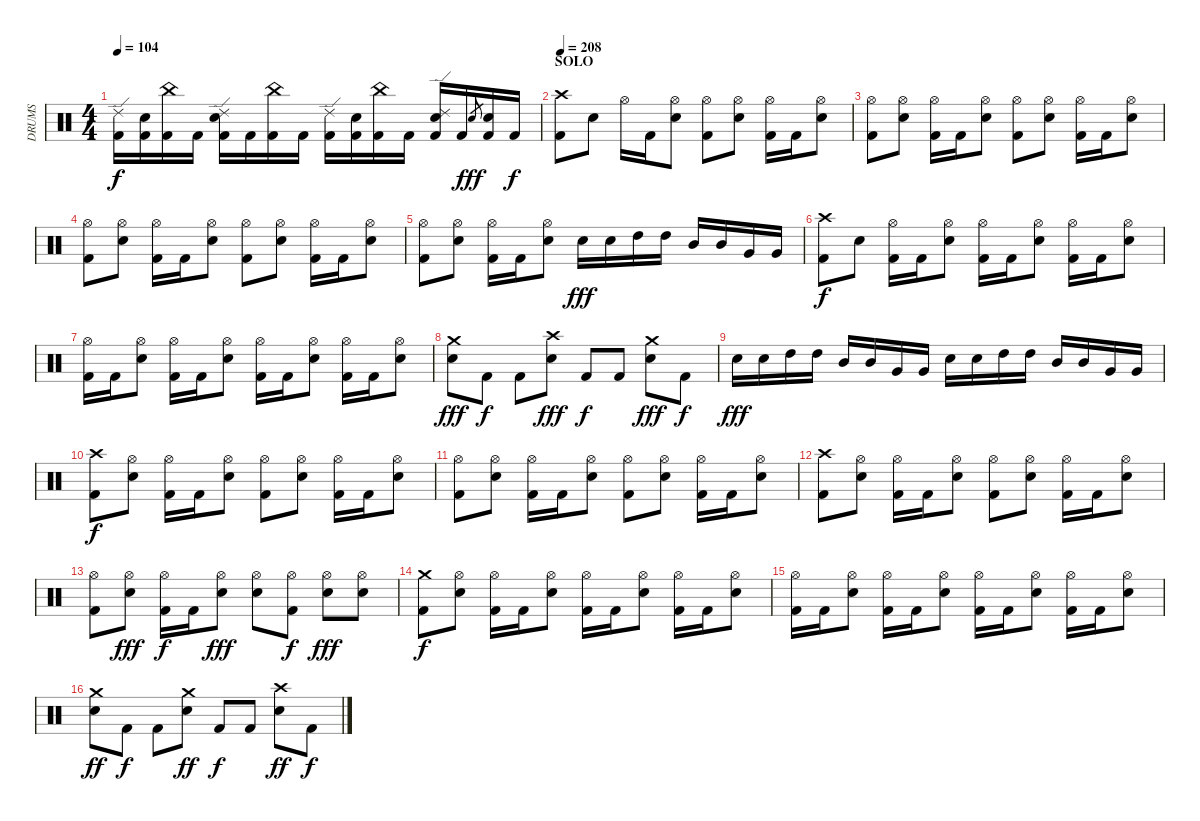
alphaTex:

\track ("DRUMS" "DRUMS") {instrument percussion}
\staff {score}
\articulation defaults
\ts (4 4)
\tempo 104
\clef neutral
\ks c
("Ride (edge) 2" "Kick (hit) 2").16{dy f} ("Electric Snare (hit)" "Kick (hit) 2").16 ("China (hit)" "Kick (hit) 2").16 "Kick (hit) 2".16 ("Ride (edge) 2" "Electric Snare (hit)" "Kick (hit) 2").16 "Kick (hit) 2".16 ("China (hit)" "Kick (hit) 2").16 "Kick (hit) 2".16 ("Ride (edge) 2" "Kick (hit) 2").16 ("Electric Snare (hit)" "Kick (hit) 2").16 ("China (hit)" "Kick (hit) 2").16 "Kick (hit) 2".16 ("Ride (edge) 2" "Electric Snare (hit)" "Kick (hit) 2").16 "Kick (hit) 2".16 "Electric Snare (hit)"{h}.8{gr dy fff} ("Electric Snare (hit)" "Kick (hit) 2").16 "Kick (hit) 2".16{dy f} |
\section ("" "SOLO")
\tempo 208
("Crash high (hit)" "Kick (hit) 2").8 "Electric Snare (hit)".8 "Hi-Hat (open)".16 "Kick (hit) 2".16 ("Hi-Hat (open)" "Electric Snare (hit)").8 ("Hi-Hat (open)" "Kick (hit) 2").8 ("Hi-Hat (open)" "Electric Snare (hit)").8 ("Hi-Hat (open)" "Kick (hit) 2").16 "Kick (hit) 2".16 ("Hi-Hat (open)" "Electric Snare (hit)").8 |
("Hi-Hat (open)" "Kick (hit) 2").8 ("Hi-Hat (open)" "Electric Snare (hit)").8 ("Hi-Hat (open)" "Kick (hit) 2").16 "Kick (hit) 2".16 ("Hi-Hat (open)" "Electric Snare (hit)").8 ("Hi-Hat (open)" "Kick (hit) 2").8 ("Hi-Hat (open)" "Electric Snare (hit)").8 ("Hi-Hat (open)" "Kick (hit) 2").16 "Kick (hit) 2".16 ("Hi-Hat (open)" "Electric Snare (hit)").8 |
("Hi-Hat (open)" "Kick (hit) 2").8 ("Hi-Hat (open)" "Electric Snare (hit)").8 ("Hi-Hat (open)" "Kick (hit) 2").16 "Kick (hit) 2".16 ("Hi-Hat (open)" "Electric Snare (hit)").8 ("Hi-Hat (open)" "Kick (hit) 2").8 ("Hi-Hat (open)" "Electric Snare (hit)").8 ("Hi-Hat (open)" "Kick (hit) 2").16 "Kick (hit) 2".16 ("Hi-Hat (open)" "Electric Snare (hit)").8 |
("Hi-Hat (open)" "Kick (hit) 2").8 ("Hi-Hat (open)" "Electric Snare (hit)").8 ("Hi-Hat (open)" "Kick (hit) 2").16 "Kick (hit) 2".16 ("Hi-Hat (open)" "Electric Snare (hit)").8 "Electric Snare (hit)".16{dy fff} "Electric Snare (hit)".16 "High Tom (hit)".16 "High Tom (hit)".16 "Mid Tom (hit)".16 "Mid Tom (hit)".16 "Very Low Tom (hit)".16 "Very Low Tom (hit)".16 |
("Crash high (hit)" "Kick (hit) 2").8{dy f} "Electric Snare (hit)".8 ("Hi-Hat (open)" "Kick (hit) 2").16 "Kick (hit) 2".16 ("Hi-Hat (open)" "Electric Snare (hit)").8 ("Hi-Hat (open)" "Kick (hit) 2").16 "Kick (hit) 2".16 ("Hi-Hat (open)" "Electric Snare (hit)").8 ("Hi-Hat (open)" "Kick (hit) 2").16 "Kick (hit) 2".16 ("Hi-Hat (open)" "Electric Snare (hit)").8 |
("Hi-Hat (open)" "Kick (hit) 2").16 "Kick (hit) 2".16 ("Hi-Hat (open)" "Electric Snare (hit)").8 ("Hi-Hat (open)" "Kick (hit) 2").16 "Kick (hit) 2".16 ("Hi-Hat (open)" "Electric Snare (hit)").8 ("Hi-Hat (open)" "Kick (hit) 2").16 "Kick (hit) 2".16 ("Hi-Hat (open)" "Electric Snare (hit)").8 ("Hi-Hat (open)" "Kick (hit) 2").16 "Kick (hit) 2".16 ("Hi-Hat (open)" "Electric Snare (hit)").8 |
("Crash medium (hit)" "Electric Snare (hit)").8{dy fff} "Kick (hit) 2".8{dy f} "Kick (hit) 2".8 ("Crash high (hit)" "Electric Snare (hit)").8{dy fff} "Kick (hit) 2".8{dy f} "Kick (hit) 2".8 ("Crash medium (hit)" "Electric Snare (hit)").8{dy fff} "Kick (hit) 2".8{dy f} |
"Electric Snare (hit)".16{dy fff} "Electric Snare (hit)".16 "High Tom (hit)".16 "High Tom (hit)".16 "Mid Tom (hit)".16 "Mid Tom (hit)".16 "Very Low Tom (hit)".16 "Very Low Tom (hit)".16 "Electric Snare (hit)".16 "Electric Snare (hit)".16 "High Tom (hit)".16 "High Tom (hit)".16 "Mid Tom (hit)".16 "Mid Tom (hit)".16 "Very Low Tom (hit)".16 "Very Low Tom (hit)".16 |
("Crash high (hit)" "Kick (hit) 2").8{dy f} ("Hi-Hat (open)" "Electric Snare (hit)").8 ("Hi-Hat (open)" "Kick (hit) 2").16 "Kick (hit) 2".16 ("Hi-Hat (open)" "Electric Snare (hit)").8 ("Hi-Hat (open)" "Kick (hit) 2").8 ("Hi-Hat (open)" "Electric Snare (hit)").8 ("Hi-Hat (open)" "Kick (hit) 2").16 "Kick (hit) 2".16 ("Hi-Hat (open)" "Electric Snare (hit)").8 |
("Hi-Hat (open)" "Kick (hit) 2").8 ("Hi-Hat (open)" "Electric Snare (hit)").8 ("Hi-Hat (open)" "Kick (hit) 2").16 "Kick (hit) 2".16 ("Hi-Hat (open)" "Electric Snare (hit)").8 ("Hi-Hat (open)" "Kick (hit) 2").8 ("Hi-Hat (open)" "Electric Snare (hit)").8 ("Hi-Hat (open)" "Kick (hit) 2").16 "Kick (hit) 2".16 ("Hi-Hat (open)" "Electric Snare (hit)").8 |
("Crash high (hit)" "Kick (hit) 2").8 ("Hi-Hat (open)" "Electric Snare (hit)").8 ("Hi-Hat (open)" "Kick (hit) 2").16 "Kick (hit) 2".16 ("Hi-Hat (open)" "Electric Snare (hit)").8 ("Hi-Hat (open)" "Kick (hit) 2").8 ("Hi-Hat (open)" "Electric Snare (hit)").8 ("Hi-Hat (open)" "Kick (hit) 2").16 "Kick (hit) 2".16 ("Hi-Hat (open)" "Electric Snare (hit)").8 |
("Hi-Hat (open)" "Kick (hit) 2").8 ("Hi-Hat (open)" "Electric Snare (hit)").8{dy fff} ("Hi-Hat (open)" "Kick (hit) 2").16{dy f} "Kick (hit) 2".16 ("Hi-Hat (open)" "Electric Snare (hit)").8{dy fff} ("Hi-Hat (open)" "Electric Snare (hit)").8 ("Hi-Hat (open)" "Kick (hit) 2").8{dy f} ("Hi-Hat (open)" "Electric Snare (hit)").8{dy fff} ("Hi-Hat (open)" "Electric Snare (hit)").8 |
("Crash medium (hit)" "Kick (hit) 2").8{dy f} ("Hi-Hat (open)" "Electric Snare (hit)").8 ("Hi-Hat (open)" "Kick (hit) 2").16 "Kick (hit) 2".16 ("Hi-Hat (open)" "Electric Snare (hit)").8 ("Hi-Hat (open)" "Kick (hit) 2").16 "Kick (hit) 2".16 ("Hi-Hat (open)" "Electric Snare (hit)").8 ("Hi-Hat (open)" "Kick (hit) 2").16 "Kick (hit) 2".16 ("Hi-Hat (open)" "Electric Snare (hit)").8 |
("Hi-Hat (open)" "Kick (hit) 2").16 "Kick (hit) 2".16 ("Hi-Hat (open)" "Electric Snare (hit)").8 ("Hi-Hat (open)" "Kick (hit) 2").16 "Kick (hit) 2".16 ("Hi-Hat (open)" "Electric Snare (hit)").8 ("Hi-Hat (open)" "Kick (hit) 2").16 "Kick (hit) 2".16 ("Hi-Hat (open)" "Electric Snare (hit)").8 ("Hi-Hat (open)" "Kick (hit) 2").16 "Kick (hit) 2".16 ("Hi-Hat (open)" "Electric Snare (hit)").8 |
("Crash medium (hit)" "Electric Snare (hit)").8{dy ff} "Kick (hit) 2".8{dy f} "Kick (hit) 2".8 ("Crash medium (hit)" "Electric Snare (hit)").8{dy ff} "Kick (hit) 2".8{dy f} "Kick (hit) 2".8 ("Crash high (hit)" "Electric Snare (hit)").8{dy ff} "Kick (hit) 2".8{dy f}
